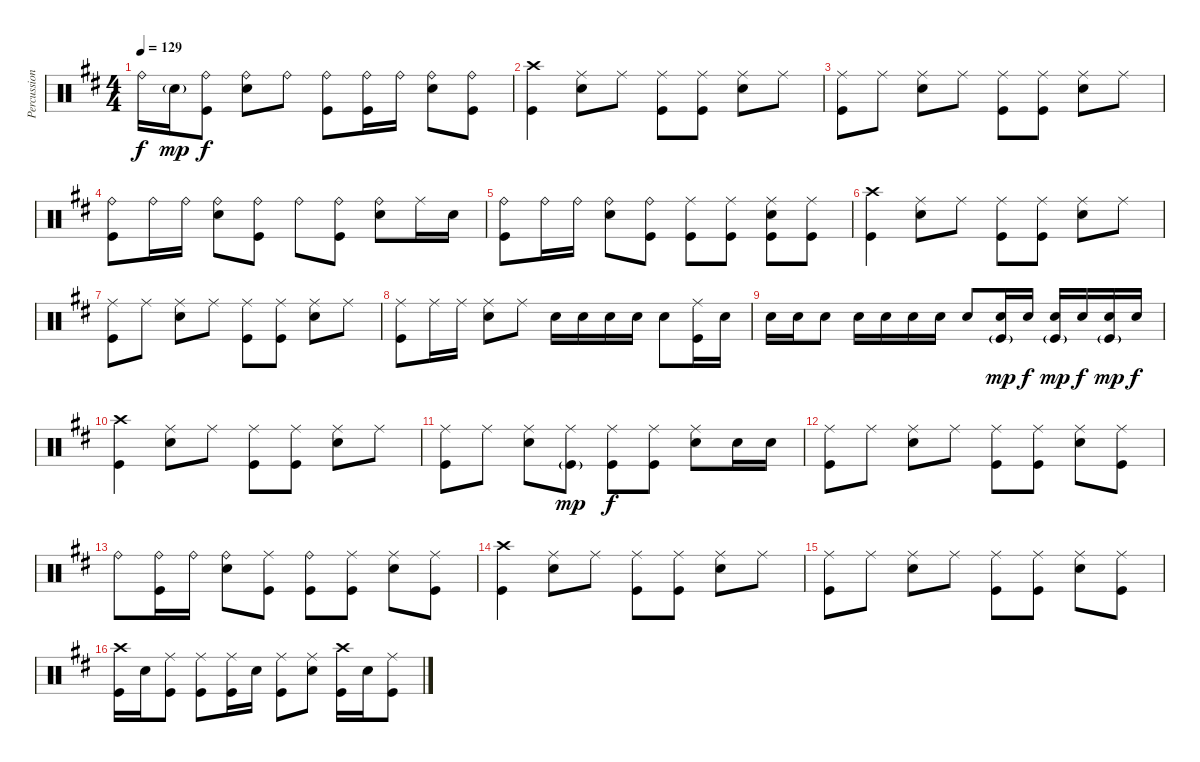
\track ("Percussion" "Percussion") {instrument percussion}
\staff {score}
\articulation defaults
\ts (4 4)
\tempo 129
\clef neutral
\ks bminor "Ride (bell)".16{dy f} "Snare (hit) 2"{g}.16{dy mp}
("Ride (bell)" "Kick (hit)").8{dy f} ("Ride (bell)" "Snare (hit) 2").8 "Ride (bell)".8 ("Ride (bell)" "Kick (hit)").8 ("Ride (bell)" "Kick (hit)").16 "Ride (bell)".16 ("Ride (bell)" "Snare (hit) 2").8 ("Ride (bell)" "Kick (hit)").8 |
("Crash high (hit)" "Kick (hit)").4 ("Ride (middle)" "Snare (hit) 2").8 "Ride (middle)".8 ("Ride (middle)" "Kick (hit)").8 ("Ride (middle)" "Kick (hit)").8 ("Ride (middle)" "Snare (hit) 2").8 "Ride (middle)".8 |
("Ride (middle)" "Kick (hit)").8 "Ride (middle)".8 ("Ride (middle)" "Snare (hit) 2").8 "Ride (middle)".8 ("Ride (middle)" "Kick (hit)").8 ("Ride (middle)" "Kick (hit)").8 ("Ride (middle)" "Snare (hit) 2").8 "Ride (middle)".8 |
("Ride (bell)" "Kick (hit)").8 "Ride (bell)".16 "Ride (bell)".16 ("Ride (bell)" "Snare (hit) 2").8 ("Ride (bell)" "Kick (hit)").8 "Ride (bell)".8 ("Ride (bell)" "Kick (hit)").8 ("Ride (bell)" "Snare (hit) 2").8 "Ride (middle)".16 "Snare (hit) 2".16 |
("Ride (bell)" "Kick (hit)").8 "Ride (bell)".16 "Ride (bell)".16 ("Ride (bell)" "Snare (hit) 2").8 ("Ride (bell)" "Kick (hit)").8 ("Ride (middle)" "Kick (hit)").8 ("Ride (middle)" "Kick (hit)").8 ("Ride (middle)" "Snare (hit) 2" "Kick (hit)").8 ("Ride (middle)" "Kick (hit)").8 |
("Crash high (hit)" "Kick (hit)").4 ("Ride (middle)" "Snare (hit) 2").8 "Ride (middle)".8 ("Ride (middle)" "Kick (hit)").8 ("Ride (middle)" "Kick (hit)").8 ("Ride (middle)" "Snare (hit) 2").8 "Ride (middle)".8 |
("Ride (middle)" "Kick (hit)").8 "Ride (middle)".8 ("Ride (middle)" "Snare (hit) 2").8 "Ride (middle)".8 ("Ride (middle)" "Kick (hit)").8 ("Ride (middle)" "Kick (hit)").8 ("Ride (middle)" "Snare (hit) 2").8 "Ride (middle)".8 |
("Ride (middle)" "Kick (hit)").8 "Ride (middle)".16 "Ride (middle)".16 ("Ride (middle)" "Snare (hit) 2").8 "Ride (middle)".8 "Snare (hit) 2".16 "Snare (hit) 2".16 "Snare (hit) 2".16 "Snare (hit) 2".16 "Snare (hit) 2".8 ("Ride (middle)" "Kick (hit)").16 "Snare (hit) 2".16 |
"Snare (hit) 2".16 "Snare (hit) 2".16 "Snare (hit) 2".8 "Snare (hit) 2".16 "Snare (hit) 2".16 "Snare (hit) 2".16 "Snare (hit) 2".16 "Snare (hit) 2".8 ("Snare (hit) 2" "Kick (hit)"{g}).16{dy mp} "Snare (hit) 2".16{dy f} ("Snare (hit) 2" "Kick (hit)"{g}).16{dy mp} "Snare (hit) 2".16{dy f} ("Snare (hit) 2" "Kick (hit)"{g}).16{dy mp} "Snare (hit) 2".16{dy f} |
("Crash high (hit)" "Kick (hit)").4 ("Ride (middle)" "Snare (hit) 2").8 "Ride (middle)".8 ("Ride (middle)" "Kick (hit)").8 ("Ride (middle)" "Kick (hit)").8 ("Ride (middle)" "Snare (hit) 2").8 "Ride (middle)".8 |
("Ride (middle)" "Kick (hit)").8 "Ride (middle)".8 ("Ride (middle)" "Snare (hit) 2").8 ("Ride (middle)" "Kick (hit)"{g}).8{dy mp} ("Ride (middle)" "Kick (hit)").8{dy f} ("Ride (middle)" "Kick (hit)").8 ("Ride (middle)" "Snare (hit) 2").8 "Snare (hit) 2".16 "Snare (hit) 2".16 |
("Ride (middle)" "Kick (hit)").8 "Ride (middle)".8 ("Ride (middle)" "Snare (hit) 2").8 "Ride (middle)".8 ("Ride (middle)" "Kick (hit)").8 ("Ride (middle)" "Kick (hit)").8 ("Ride (middle)" "Snare (hit) 2").8 ("Ride (middle)" "Kick (hit)").8 |
"Ride (bell)".8 ("Ride (bell)" "Kick (hit)").16 "Ride (bell)".16 ("Ride (bell)" "Snare (hit) 2").8 ("Ride (middle)" "Kick (hit)").8 ("Ride (bell)" "Kick (hit)").8 ("Ride (middle)" "Kick (hit)").8 ("Ride (middle)" "Snare (hit) 2").8 ("Ride (middle)" "Kick (hit)").8 |
("Crash high (hit)" "Kick (hit)").4 ("Ride (middle)" "Snare (hit) 2").8 "Ride (middle)".8 ("Ride (middle)" "Kick (hit)").8 ("Ride (middle)" "Kick (hit)").8 ("Ride (middle)" "Snare (hit) 2").8 "Ride (middle)".8 |
("Ride (middle)" "Kick (hit)").8 "Ride (middle)".8 ("Ride (middle)" "Snare (hit) 2").8 "Ride (middle)".8 ("Ride (middle)" "Kick (hit)").8 ("Ride (middle)" "Kick (hit)").8 ("Ride (middle)" "Snare (hit) 2").8 ("Ride (middle)" "Kick (hit)").8 |
("Crash high (hit)" "Kick (hit)").16 "Snare (hit) 2".16 ("Ride (middle)" "Kick (hit)").8 ("Ride (middle)" "Kick (hit)").8 ("Ride (middle)" "Kick (hit)").16 "Snare (hit) 2".16 ("Ride (middle)" "Kick (hit)").8 ("Ride (middle)" "Snare (hit) 2").8 ("Crash high (hit)" "Kick (hit)").16 "Snare (hit) 2".16 ("Ride (middle)" "Kick (hit)").8
